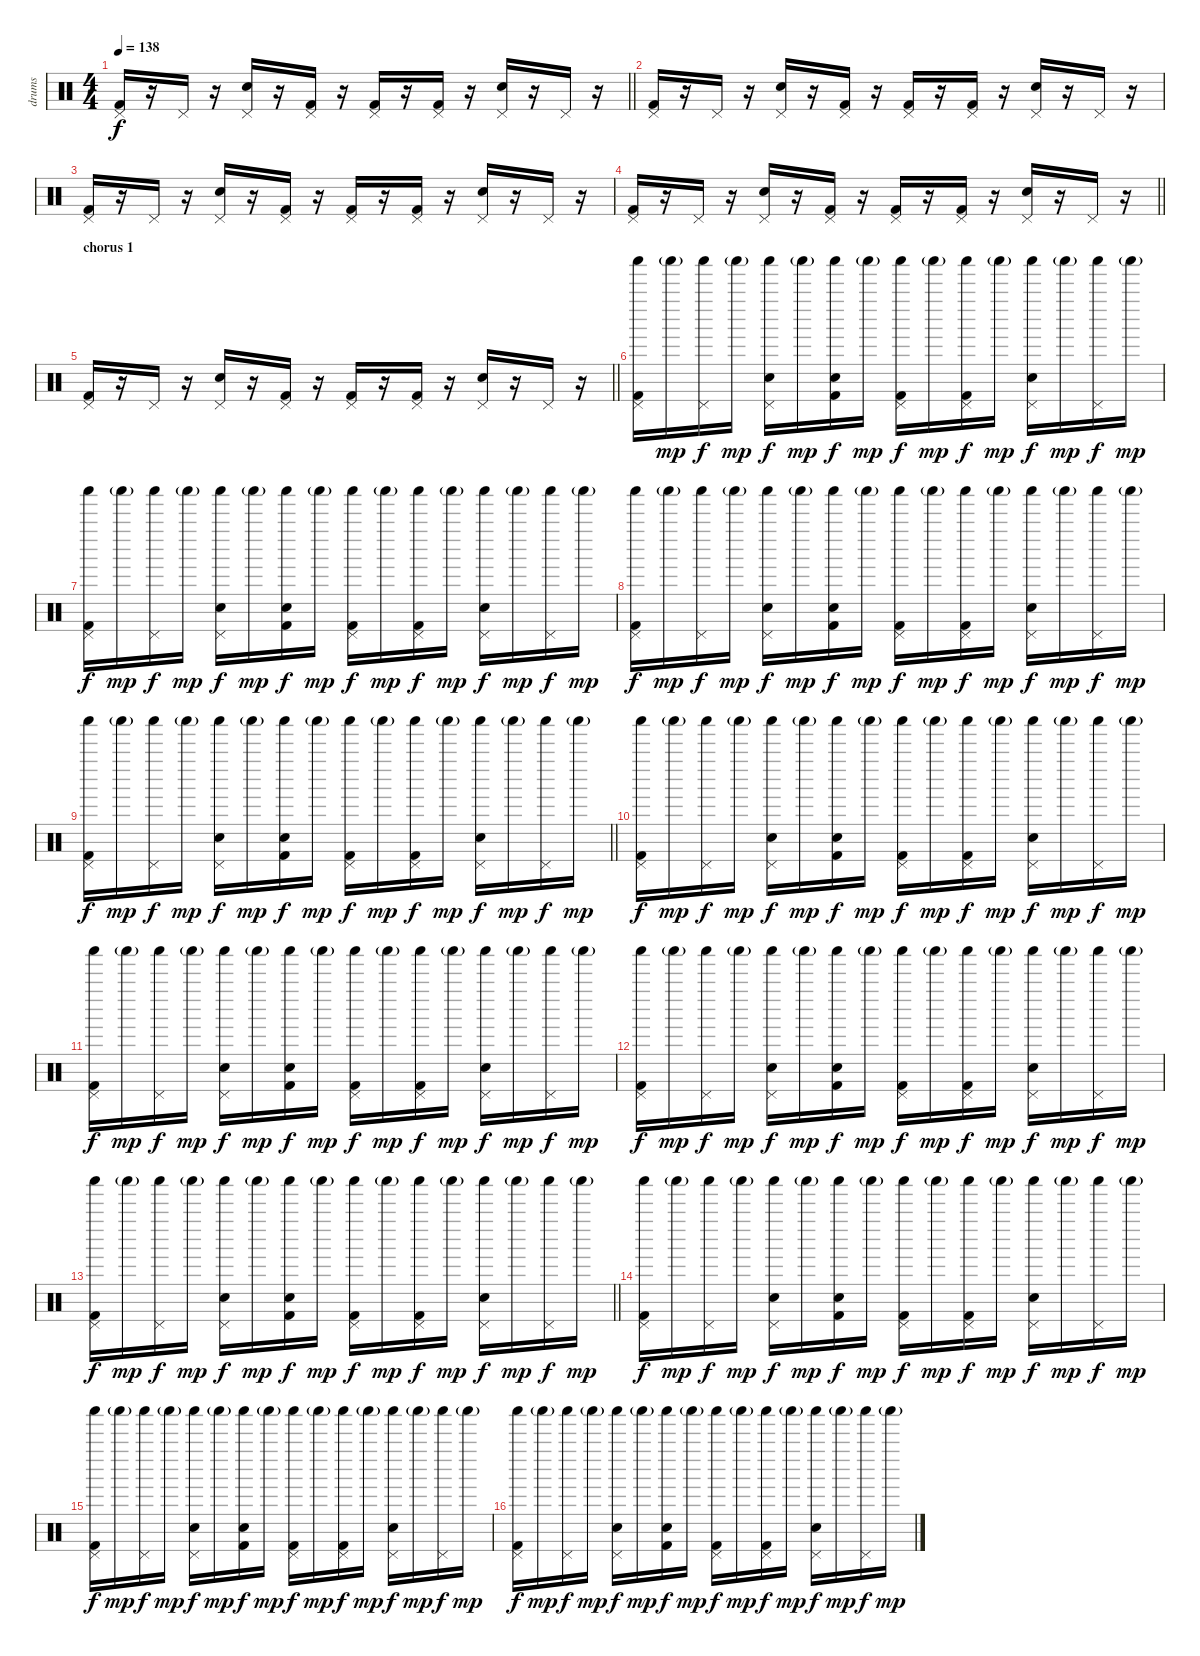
\track ("drums" "drums") {instrument percussion}
\staff {score}
\articulation defaults
\ts (4 4)
\tempo 138
\clef neutral
\barLineRight lightlight
\ks c
("Kick (hit) 2" "Pedal Hi-Hat (hit)").16{dy f} r.16 "Pedal Hi-Hat (hit)".16 r.16 ("Electric Snare (hit)" "Pedal Hi-Hat (hit)").16 r.16 ("Kick (hit) 2" "Pedal Hi-Hat (hit)").16 r.16 ("Kick (hit) 2" "Pedal Hi-Hat (hit)").16 r.16 ("Kick (hit) 2" "Pedal Hi-Hat (hit)").16 r.16 ("Electric Snare (hit)" "Pedal Hi-Hat (hit)").16 r.16 "Pedal Hi-Hat (hit)".16 r.16 |
("Kick (hit) 2" "Pedal Hi-Hat (hit)").16 r.16 "Pedal Hi-Hat (hit)".16 r.16 ("Electric Snare (hit)" "Pedal Hi-Hat (hit)").16 r.16 ("Kick (hit) 2" "Pedal Hi-Hat (hit)").16 r.16 ("Kick (hit) 2" "Pedal Hi-Hat (hit)").16 r.16 ("Kick (hit) 2" "Pedal Hi-Hat (hit)").16 r.16 ("Electric Snare (hit)" "Pedal Hi-Hat (hit)").16 r.16 "Pedal Hi-Hat (hit)".16 r.16 |
("Kick (hit) 2" "Pedal Hi-Hat (hit)").16 r.16 "Pedal Hi-Hat (hit)".16 r.16 ("Electric Snare (hit)" "Pedal Hi-Hat (hit)").16 r.16 ("Kick (hit) 2" "Pedal Hi-Hat (hit)").16 r.16 ("Kick (hit) 2" "Pedal Hi-Hat (hit)").16 r.16 ("Kick (hit) 2" "Pedal Hi-Hat (hit)").16 r.16 ("Electric Snare (hit)" "Pedal Hi-Hat (hit)").16 r.16 "Pedal Hi-Hat (hit)".16 r.16 |
\barLineRight lightlight
("Kick (hit) 2" "Pedal Hi-Hat (hit)").16 r.16 "Pedal Hi-Hat (hit)".16 r.16 ("Electric Snare (hit)" "Pedal Hi-Hat (hit)").16 r.16 ("Kick (hit) 2" "Pedal Hi-Hat (hit)").16 r.16 ("Kick (hit) 2" "Pedal Hi-Hat (hit)").16 r.16 ("Kick (hit) 2" "Pedal Hi-Hat (hit)").16 r.16 ("Electric Snare (hit)" "Pedal Hi-Hat (hit)").16 r.16 "Pedal Hi-Hat (hit)".16 r.16 |
\section ("" "chorus 1")
\barLineRight lightlight
("Kick (hit) 2" "Pedal Hi-Hat (hit)").16 r.16 "Pedal Hi-Hat (hit)".16 r.16 ("Electric Snare (hit)" "Pedal Hi-Hat (hit)").16 r.16 ("Kick (hit) 2" "Pedal Hi-Hat (hit)").16 r.16 ("Kick (hit) 2" "Pedal Hi-Hat (hit)").16 r.16 ("Kick (hit) 2" "Pedal Hi-Hat (hit)").16 r.16 ("Electric Snare (hit)" "Pedal Hi-Hat (hit)").16 r.16 "Pedal Hi-Hat (hit)".16 r.16 |
("Kick (hit) 2" "Pedal Hi-Hat (hit)" "Shaker (hit)").16 "Shaker (hit)"{g}.16{dy mp} ("Pedal Hi-Hat (hit)" "Shaker (hit)").16{dy f} "Shaker (hit)"{g}.16{dy mp} ("Electric Snare (hit)" "Pedal Hi-Hat (hit)" "Shaker (hit)").16{dy f} "Shaker (hit)"{g}.16{dy mp} ("Kick (hit) 2" "Snare (hit)" "Shaker (hit)").16{dy f} "Shaker (hit)"{g}.16{dy mp} ("Kick (hit) 2" "Pedal Hi-Hat (hit)" "Shaker (hit)").16{dy f} "Shaker (hit)"{g}.16{dy mp} ("Kick (hit) 2" "Pedal Hi-Hat (hit)" "Shaker (hit)").16{dy f} "Shaker (hit)"{g}.16{dy mp} ("Electric Snare (hit)" "Pedal Hi-Hat (hit)" "Shaker (hit)").16{dy f} "Shaker (hit)"{g}.16{dy mp} ("Pedal Hi-Hat (hit)" "Shaker (hit)").16{dy f} "Shaker (hit)"{g}.16{dy mp} |
("Kick (hit) 2" "Pedal Hi-Hat (hit)" "Shaker (hit)").16{dy f} "Shaker (hit)"{g}.16{dy mp} ("Pedal Hi-Hat (hit)" "Shaker (hit)").16{dy f} "Shaker (hit)"{g}.16{dy mp} ("Electric Snare (hit)" "Pedal Hi-Hat (hit)" "Shaker (hit)").16{dy f} "Shaker (hit)"{g}.16{dy mp} ("Kick (hit) 2" "Snare (hit)" "Shaker (hit)").16{dy f} "Shaker (hit)"{g}.16{dy mp} ("Kick (hit) 2" "Pedal Hi-Hat (hit)" "Shaker (hit)").16{dy f} "Shaker (hit)"{g}.16{dy mp} ("Kick (hit) 2" "Pedal Hi-Hat (hit)" "Shaker (hit)").16{dy f} "Shaker (hit)"{g}.16{dy mp} ("Electric Snare (hit)" "Pedal Hi-Hat (hit)" "Shaker (hit)").16{dy f} "Shaker (hit)"{g}.16{dy mp} ("Pedal Hi-Hat (hit)" "Shaker (hit)").16{dy f} "Shaker (hit)"{g}.16{dy mp} |
("Kick (hit) 2" "Pedal Hi-Hat (hit)" "Shaker (hit)").16{dy f} "Shaker (hit)"{g}.16{dy mp} ("Pedal Hi-Hat (hit)" "Shaker (hit)").16{dy f} "Shaker (hit)"{g}.16{dy mp} ("Electric Snare (hit)" "Pedal Hi-Hat (hit)" "Shaker (hit)").16{dy f} "Shaker (hit)"{g}.16{dy mp} ("Kick (hit) 2" "Snare (hit)" "Shaker (hit)").16{dy f} "Shaker (hit)"{g}.16{dy mp} ("Kick (hit) 2" "Pedal Hi-Hat (hit)" "Shaker (hit)").16{dy f} "Shaker (hit)"{g}.16{dy mp} ("Kick (hit) 2" "Pedal Hi-Hat (hit)" "Shaker (hit)").16{dy f} "Shaker (hit)"{g}.16{dy mp} ("Electric Snare (hit)" "Pedal Hi-Hat (hit)" "Shaker (hit)").16{dy f} "Shaker (hit)"{g}.16{dy mp} ("Pedal Hi-Hat (hit)" "Shaker (hit)").16{dy f} "Shaker (hit)"{g}.16{dy mp} |
\barLineRight lightlight
("Kick (hit) 2" "Pedal Hi-Hat (hit)" "Shaker (hit)").16{dy f} "Shaker (hit)"{g}.16{dy mp} ("Pedal Hi-Hat (hit)" "Shaker (hit)").16{dy f} "Shaker (hit)"{g}.16{dy mp} ("Electric Snare (hit)" "Pedal Hi-Hat (hit)" "Shaker (hit)").16{dy f} "Shaker (hit)"{g}.16{dy mp} ("Kick (hit) 2" "Snare (hit)" "Shaker (hit)").16{dy f} "Shaker (hit)"{g}.16{dy mp} ("Kick (hit) 2" "Pedal Hi-Hat (hit)" "Shaker (hit)").16{dy f} "Shaker (hit)"{g}.16{dy mp} ("Kick (hit) 2" "Pedal Hi-Hat (hit)" "Shaker (hit)").16{dy f} "Shaker (hit)"{g}.16{dy mp} ("Electric Snare (hit)" "Pedal Hi-Hat (hit)" "Shaker (hit)").16{dy f} "Shaker (hit)"{g}.16{dy mp} ("Pedal Hi-Hat (hit)" "Shaker (hit)").16{dy f} "Shaker (hit)"{g}.16{dy mp} |
("Kick (hit) 2" "Pedal Hi-Hat (hit)" "Shaker (hit)").16{dy f} "Shaker (hit)"{g}.16{dy mp} ("Pedal Hi-Hat (hit)" "Shaker (hit)").16{dy f} "Shaker (hit)"{g}.16{dy mp} ("Electric Snare (hit)" "Pedal Hi-Hat (hit)" "Shaker (hit)").16{dy f} "Shaker (hit)"{g}.16{dy mp} ("Kick (hit) 2" "Snare (hit)" "Shaker (hit)").16{dy f} "Shaker (hit)"{g}.16{dy mp} ("Kick (hit) 2" "Pedal Hi-Hat (hit)" "Shaker (hit)").16{dy f} "Shaker (hit)"{g}.16{dy mp} ("Kick (hit) 2" "Pedal Hi-Hat (hit)" "Shaker (hit)").16{dy f} "Shaker (hit)"{g}.16{dy mp} ("Electric Snare (hit)" "Pedal Hi-Hat (hit)" "Shaker (hit)").16{dy f} "Shaker (hit)"{g}.16{dy mp} ("Pedal Hi-Hat (hit)" "Shaker (hit)").16{dy f} "Shaker (hit)"{g}.16{dy mp} |
("Kick (hit) 2" "Pedal Hi-Hat (hit)" "Shaker (hit)").16{dy f} "Shaker (hit)"{g}.16{dy mp} ("Pedal Hi-Hat (hit)" "Shaker (hit)").16{dy f} "Shaker (hit)"{g}.16{dy mp} ("Electric Snare (hit)" "Pedal Hi-Hat (hit)" "Shaker (hit)").16{dy f} "Shaker (hit)"{g}.16{dy mp} ("Kick (hit) 2" "Snare (hit)" "Shaker (hit)").16{dy f} "Shaker (hit)"{g}.16{dy mp} ("Kick (hit) 2" "Pedal Hi-Hat (hit)" "Shaker (hit)").16{dy f} "Shaker (hit)"{g}.16{dy mp} ("Kick (hit) 2" "Pedal Hi-Hat (hit)" "Shaker (hit)").16{dy f} "Shaker (hit)"{g}.16{dy mp} ("Electric Snare (hit)" "Pedal Hi-Hat (hit)" "Shaker (hit)").16{dy f} "Shaker (hit)"{g}.16{dy mp} ("Pedal Hi-Hat (hit)" "Shaker (hit)").16{dy f} "Shaker (hit)"{g}.16{dy mp} |
("Kick (hit) 2" "Pedal Hi-Hat (hit)" "Shaker (hit)").16{dy f} "Shaker (hit)"{g}.16{dy mp} ("Pedal Hi-Hat (hit)" "Shaker (hit)").16{dy f} "Shaker (hit)"{g}.16{dy mp} ("Electric Snare (hit)" "Pedal Hi-Hat (hit)" "Shaker (hit)").16{dy f} "Shaker (hit)"{g}.16{dy mp} ("Kick (hit) 2" "Snare (hit)" "Shaker (hit)").16{dy f} "Shaker (hit)"{g}.16{dy mp} ("Kick (hit) 2" "Pedal Hi-Hat (hit)" "Shaker (hit)").16{dy f} "Shaker (hit)"{g}.16{dy mp} ("Kick (hit) 2" "Pedal Hi-Hat (hit)" "Shaker (hit)").16{dy f} "Shaker (hit)"{g}.16{dy mp} ("Electric Snare (hit)" "Pedal Hi-Hat (hit)" "Shaker (hit)").16{dy f} "Shaker (hit)"{g}.16{dy mp} ("Pedal Hi-Hat (hit)" "Shaker (hit)").16{dy f} "Shaker (hit)"{g}.16{dy mp} |
\barLineRight lightlight
("Kick (hit) 2" "Pedal Hi-Hat (hit)" "Shaker (hit)").16{dy f} "Shaker (hit)"{g}.16{dy mp} ("Pedal Hi-Hat (hit)" "Shaker (hit)").16{dy f} "Shaker (hit)"{g}.16{dy mp} ("Electric Snare (hit)" "Pedal Hi-Hat (hit)" "Shaker (hit)").16{dy f} "Shaker (hit)"{g}.16{dy mp} ("Kick (hit) 2" "Snare (hit)" "Shaker (hit)").16{dy f} "Shaker (hit)"{g}.16{dy mp} ("Kick (hit) 2" "Pedal Hi-Hat (hit)" "Shaker (hit)").16{dy f} "Shaker (hit)"{g}.16{dy mp} ("Kick (hit) 2" "Pedal Hi-Hat (hit)" "Shaker (hit)").16{dy f} "Shaker (hit)"{g}.16{dy mp} ("Electric Snare (hit)" "Pedal Hi-Hat (hit)" "Shaker (hit)").16{dy f} "Shaker (hit)"{g}.16{dy mp} ("Pedal Hi-Hat (hit)" "Shaker (hit)").16{dy f} "Shaker (hit)"{g}.16{dy mp} |
("Kick (hit) 2" "Pedal Hi-Hat (hit)" "Shaker (hit)").16{dy f} "Shaker (hit)"{g}.16{dy mp} ("Pedal Hi-Hat (hit)" "Shaker (hit)").16{dy f} "Shaker (hit)"{g}.16{dy mp} ("Electric Snare (hit)" "Pedal Hi-Hat (hit)" "Shaker (hit)").16{dy f} "Shaker (hit)"{g}.16{dy mp} ("Kick (hit) 2" "Snare (hit)" "Shaker (hit)").16{dy f} "Shaker (hit)"{g}.16{dy mp} ("Kick (hit) 2" "Pedal Hi-Hat (hit)" "Shaker (hit)").16{dy f} "Shaker (hit)"{g}.16{dy mp} ("Kick (hit) 2" "Pedal Hi-Hat (hit)" "Shaker (hit)").16{dy f} "Shaker (hit)"{g}.16{dy mp} ("Electric Snare (hit)" "Pedal Hi-Hat (hit)" "Shaker (hit)").16{dy f} "Shaker (hit)"{g}.16{dy mp} ("Pedal Hi-Hat (hit)" "Shaker (hit)").16{dy f} "Shaker (hit)"{g}.16{dy mp} |
("Kick (hit) 2" "Pedal Hi-Hat (hit)" "Shaker (hit)").16{dy f} "Shaker (hit)"{g}.16{dy mp} ("Pedal Hi-Hat (hit)" "Shaker (hit)").16{dy f} "Shaker (hit)"{g}.16{dy mp} ("Electric Snare (hit)" "Pedal Hi-Hat (hit)" "Shaker (hit)").16{dy f} "Shaker (hit)"{g}.16{dy mp} ("Kick (hit) 2" "Snare (hit)" "Shaker (hit)").16{dy f} "Shaker (hit)"{g}.16{dy mp} ("Kick (hit) 2" "Pedal Hi-Hat (hit)" "Shaker (hit)").16{dy f} "Shaker (hit)"{g}.16{dy mp} ("Kick (hit) 2" "Pedal Hi-Hat (hit)" "Shaker (hit)").16{dy f} "Shaker (hit)"{g}.16{dy mp} ("Electric Snare (hit)" "Pedal Hi-Hat (hit)" "Shaker (hit)").16{dy f} "Shaker (hit)"{g}.16{dy mp} ("Pedal Hi-Hat (hit)" "Shaker (hit)").16{dy f} "Shaker (hit)"{g}.16{dy mp} |
("Kick (hit) 2" "Pedal Hi-Hat (hit)" "Shaker (hit)").16{dy f} "Shaker (hit)"{g}.16{dy mp} ("Pedal Hi-Hat (hit)" "Shaker (hit)").16{dy f} "Shaker (hit)"{g}.16{dy mp} ("Electric Snare (hit)" "Pedal Hi-Hat (hit)" "Shaker (hit)").16{dy f} "Shaker (hit)"{g}.16{dy mp} ("Kick (hit) 2" "Snare (hit)" "Shaker (hit)").16{dy f} "Shaker (hit)"{g}.16{dy mp} ("Kick (hit) 2" "Pedal Hi-Hat (hit)" "Shaker (hit)").16{dy f} "Shaker (hit)"{g}.16{dy mp} ("Kick (hit) 2" "Pedal Hi-Hat (hit)" "Shaker (hit)").16{dy f} "Shaker (hit)"{g}.16{dy mp} ("Electric Snare (hit)" "Pedal Hi-Hat (hit)" "Shaker (hit)").16{dy f} "Shaker (hit)"{g}.16{dy mp} ("Pedal Hi-Hat (hit)" "Shaker (hit)").16{dy f} "Shaker (hit)"{g}.16{dy mp}
